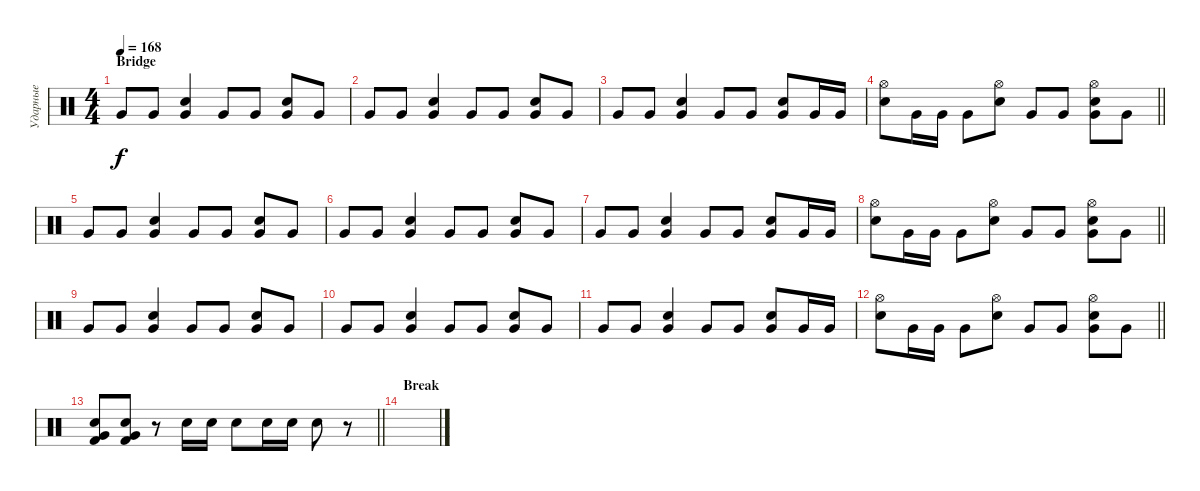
\track ("Ударные" "Ударные") {instrument percussion}
\staff {score}
\articulation defaults
\ts (4 4)
\section ("" "Bridge")
\tempo 168
\clef neutral
\ks c "Very Low Tom (hit)".8{dy f} "Very Low Tom (hit)".8
("Very Low Tom (hit)" "Snare (hit) 2").4 "Very Low Tom (hit)".8 "Very Low Tom (hit)".8 ("Very Low Tom (hit)" "Snare (hit) 2").8 "Very Low Tom (hit)".8 |
"Very Low Tom (hit)".8 "Very Low Tom (hit)".8 ("Very Low Tom (hit)" "Snare (hit) 2").4 "Very Low Tom (hit)".8 "Very Low Tom (hit)".8 ("Very Low Tom (hit)" "Snare (hit) 2").8 "Very Low Tom (hit)".8 |
"Very Low Tom (hit)".8 "Very Low Tom (hit)".8 ("Very Low Tom (hit)" "Snare (hit) 2").4 "Very Low Tom (hit)".8 "Very Low Tom (hit)".8 ("Very Low Tom (hit)" "Snare (hit) 2").8 "Very Low Tom (hit)".16 "Very Low Tom (hit)".16 |
\barLineRight lightlight
("Hi-Hat (open)" "Snare (hit) 2").8 "Very Low Tom (hit)".16 "Very Low Tom (hit)".16 "Very Low Tom (hit)".8 ("Hi-Hat (open)" "Snare (hit) 2").8 "Very Low Tom (hit)".8 "Very Low Tom (hit)".8 ("Hi-Hat (open)" "Very Low Tom (hit)" "Snare (hit) 2").8 "Very Low Tom (hit)".8 |
"Very Low Tom (hit)".8 "Very Low Tom (hit)".8 ("Very Low Tom (hit)" "Snare (hit) 2").4 "Very Low Tom (hit)".8 "Very Low Tom (hit)".8 ("Very Low Tom (hit)" "Snare (hit) 2").8 "Very Low Tom (hit)".8 |
"Very Low Tom (hit)".8 "Very Low Tom (hit)".8 ("Very Low Tom (hit)" "Snare (hit) 2").4 "Very Low Tom (hit)".8 "Very Low Tom (hit)".8 ("Very Low Tom (hit)" "Snare (hit) 2").8 "Very Low Tom (hit)".8 |
"Very Low Tom (hit)".8 "Very Low Tom (hit)".8 ("Very Low Tom (hit)" "Snare (hit) 2").4 "Very Low Tom (hit)".8 "Very Low Tom (hit)".8 ("Very Low Tom (hit)" "Snare (hit) 2").8 "Very Low Tom (hit)".16 "Very Low Tom (hit)".16 |
\barLineRight lightlight
("Hi-Hat (open)" "Snare (hit) 2").8 "Very Low Tom (hit)".16 "Very Low Tom (hit)".16 "Very Low Tom (hit)".8 ("Hi-Hat (open)" "Snare (hit) 2").8 "Very Low Tom (hit)".8 "Very Low Tom (hit)".8 ("Hi-Hat (open)" "Very Low Tom (hit)" "Snare (hit) 2").8 "Very Low Tom (hit)".8 |
"Very Low Tom (hit)".8 "Very Low Tom (hit)".8 ("Very Low Tom (hit)" "Snare (hit) 2").4 "Very Low Tom (hit)".8 "Very Low Tom (hit)".8 ("Very Low Tom (hit)" "Snare (hit) 2").8 "Very Low Tom (hit)".8 |
"Very Low Tom (hit)".8 "Very Low Tom (hit)".8 ("Very Low Tom (hit)" "Snare (hit) 2").4 "Very Low Tom (hit)".8 "Very Low Tom (hit)".8 ("Very Low Tom (hit)" "Snare (hit) 2").8 "Very Low Tom (hit)".8 |
"Very Low Tom (hit)".8 "Very Low Tom (hit)".8 ("Very Low Tom (hit)" "Snare (hit) 2").4 "Very Low Tom (hit)".8 "Very Low Tom (hit)".8 ("Very Low Tom (hit)" "Snare (hit) 2").8 "Very Low Tom (hit)".16 "Very Low Tom (hit)".16 |
\barLineRight lightlight
("Hi-Hat (open)" "Snare (hit) 2").8 "Very Low Tom (hit)".16 "Very Low Tom (hit)".16 "Very Low Tom (hit)".8 ("Hi-Hat (open)" "Snare (hit) 2").8 "Very Low Tom (hit)".8 "Very Low Tom (hit)".8 ("Hi-Hat (open)" "Very Low Tom (hit)" "Snare (hit) 2").8 "Very Low Tom (hit)".8 |
\barLineRight lightlight
("Very Low Tom (hit)" "Snare (hit) 2" "Kick (hit) 2").8 ("Very Low Tom (hit)" "Snare (hit) 2" "Kick (hit) 2").8 r.8 "Snare (hit) 2".16 "Snare (hit) 2".16 "Snare (hit) 2".8 "Snare (hit) 2".16 "Snare (hit) 2".16 "Snare (hit) 2".8 r.8 |
\section ("" "Break")
